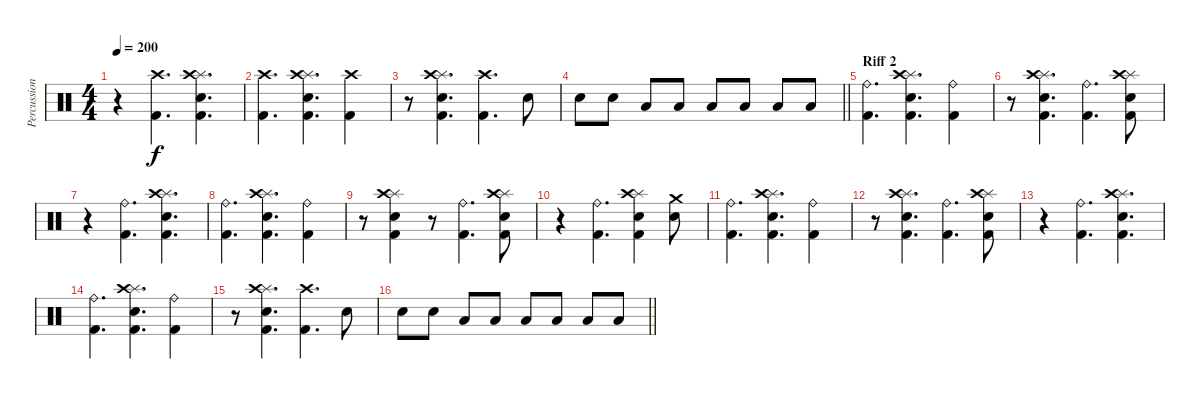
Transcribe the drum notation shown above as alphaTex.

\track ("Percussion" "Percussion") {instrument percussion}
\staff {score}
\articulation defaults
\ts (4 4)
\tempo 200
\clef neutral
\ks c
r.4{dy f} ("Crash high (hit)" "Kick (hit) 2").4{d} ("Splash (hit)" "Crash high (hit)" "Electric Snare (hit)" "Kick (hit) 2").4{d} |
("Crash high (hit)" "Kick (hit) 2").4{d} ("Splash (hit)" "Crash high (hit)" "Electric Snare (hit)" "Kick (hit) 2").4{d} ("Crash high (hit)" "Kick (hit) 2").4 |
r.8 ("Splash (hit)" "Crash high (hit)" "Electric Snare (hit)" "Kick (hit) 2").4{d} ("Crash high (hit)" "Kick (hit) 2").4{d} "Snare (hit) 2".8 |
\barLineRight lightlight "Snare (hit) 2".8 "Snare (hit) 2".8 "Low Tom (hit)".8 "Low Tom (hit)".8 "Low Tom (hit)".8 "Low Floor Tom (hit)".8 "Low Floor Tom (hit)".8 "Low Floor Tom (hit)".8
|
\section ("" "Riff 2")
("Ride (bell)" "Kick (hit) 2").4{d} ("Splash (hit)" "Crash high (hit)" "Electric Snare (hit)" "Kick (hit) 2").4{d} ("Ride (bell)" "Kick (hit) 2").4 |
r.8 ("Splash (hit)" "Crash high (hit)" "Electric Snare (hit)" "Kick (hit) 2").4{d} ("Ride (bell)" "Kick (hit) 2").4{d} ("Splash (hit)" "Crash high (hit)" "Electric Snare (hit)" "Kick (hit) 2").8 |
r.4 ("Ride (bell)" "Kick (hit) 2").4{d} ("Splash (hit)" "Crash high (hit)" "Electric Snare (hit)" "Kick (hit) 2").4{d} |
("Ride (bell)" "Kick (hit) 2").4{d} ("Splash (hit)" "Crash high (hit)" "Electric Snare (hit)" "Kick (hit) 2").4{d} ("Ride (bell)" "Kick (hit) 2").4 |
r.8 ("Splash (hit)" "Crash high (hit)" "Electric Snare (hit)" "Kick (hit) 2").4 r.8 ("Ride (bell)" "Kick (hit) 2").4{d} ("Splash (hit)" "Crash high (hit)" "Electric Snare (hit)" "Kick (hit) 2").8 |
r.4 ("Ride (bell)" "Kick (hit) 2").4{d} ("Splash (hit)" "Crash high (hit)" "Electric Snare (hit)" "Kick (hit) 2").4 ("Crash medium (hit)" "Electric Snare (hit)").8 |
("Ride (bell)" "Kick (hit) 2").4{d} ("Splash (hit)" "Crash high (hit)" "Electric Snare (hit)" "Kick (hit) 2").4{d} ("Ride (bell)" "Kick (hit) 2").4 |
r.8 ("Splash (hit)" "Crash high (hit)" "Electric Snare (hit)" "Kick (hit) 2").4{d} ("Ride (bell)" "Kick (hit) 2").4{d} ("Splash (hit)" "Crash high (hit)" "Electric Snare (hit)" "Kick (hit) 2").8 |
r.4 ("Ride (bell)" "Kick (hit) 2").4{d} ("Splash (hit)" "Crash high (hit)" "Electric Snare (hit)" "Kick (hit) 2").4{d} |
("Ride (bell)" "Kick (hit) 2").4{d} ("Splash (hit)" "Crash high (hit)" "Electric Snare (hit)" "Kick (hit) 2").4{d} ("Ride (bell)" "Kick (hit) 2").4 |
r.8 ("Splash (hit)" "Crash high (hit)" "Electric Snare (hit)" "Kick (hit) 2").4{d} ("Crash high (hit)" "Kick (hit) 2").4{d} "Snare (hit) 2".8 |
\barLineRight lightlight "Snare (hit) 2".8 "Snare (hit) 2".8 "Low Tom (hit)".8 "Low Tom (hit)".8 "Low Tom (hit)".8 "Low Floor Tom (hit)".8 "Low Floor Tom (hit)".8 "Low Floor Tom (hit)".8
